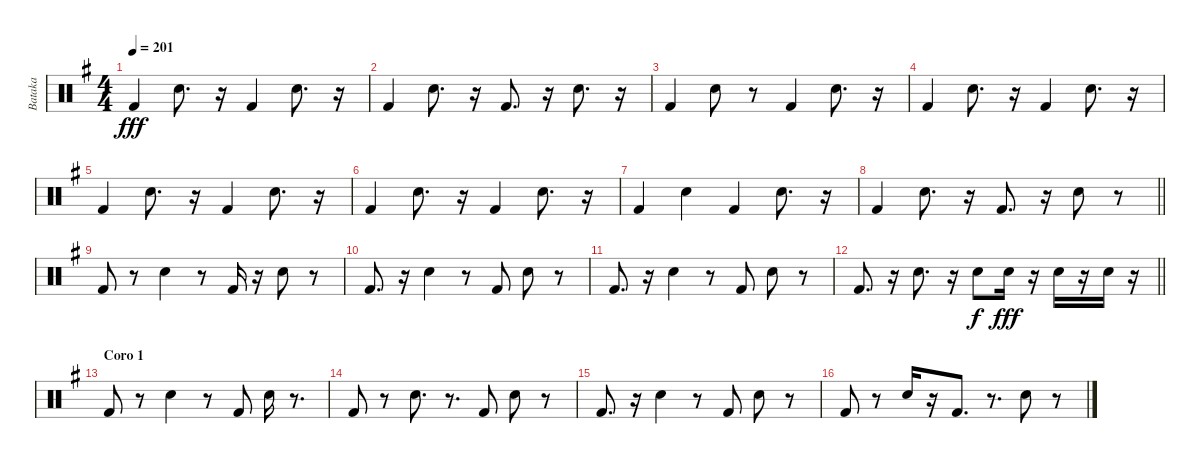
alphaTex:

\track ("Bataka" "Bataka") {instrument percussion}
\staff {score}
\articulation defaults
\ts (4 4)
\tempo 201
\clef neutral
\ks g "Kick (hit) 2".4{dy fff} "Electric Snare (hit)".8{d}
r.16 "Kick (hit) 2".4 "Electric Snare (hit)".8{d} r.16 |
"Kick (hit) 2".4 "Electric Snare (hit)".8{d} r.16 "Kick (hit) 2".8{d} r.16 "Electric Snare (hit)".8{d} r.16 |
"Kick (hit) 2".4 "Electric Snare (hit)".8 r.8 "Kick (hit) 2".4 "Electric Snare (hit)".8{d} r.16 |
"Kick (hit) 2".4 "Electric Snare (hit)".8{d} r.16 "Kick (hit) 2".4 "Electric Snare (hit)".8{d} r.16 |
"Kick (hit) 2".4 "Electric Snare (hit)".8{d} r.16 "Kick (hit) 2".4 "Electric Snare (hit)".8{d} r.16 |
"Kick (hit) 2".4 "Electric Snare (hit)".8{d} r.16 "Kick (hit) 2".4 "Electric Snare (hit)".8{d} r.16 |
"Kick (hit) 2".4 "Electric Snare (hit)".4 "Kick (hit) 2".4 "Electric Snare (hit)".8{d} r.16 |
\barLineRight lightlight "Kick (hit) 2".4 "Electric Snare (hit)".8{d}
r.16 "Kick (hit) 2".8{d} r.16 "Electric Snare (hit)".8 r.8 |
"Kick (hit) 2".8 r.8 "Electric Snare (hit)".4 r.8 "Kick (hit) 2".16 r.16 "Electric Snare (hit)".8 r.8 |
"Kick (hit) 2".8{d} r.16 "Electric Snare (hit)".4 r.8 "Kick (hit) 2".8 "Electric Snare (hit)".8 r.8 |
"Kick (hit) 2".8{d} r.16 "Electric Snare (hit)".4 r.8 "Kick (hit) 2".8 "Electric Snare (hit)".8 r.8 |
\barLineRight lightlight "Kick (hit) 2".8{d}
r.16 "Electric Snare (hit)".8{d} r.16 "Electric Snare (hit)".8{dy f} "Electric Snare (hit)".16{dy fff} r.16 "Electric Snare (hit)".16 r.16 "Electric Snare (hit)".16 r.16 |
\section ("" "Coro 1")
"Kick (hit) 2".8 r.8 "Electric Snare (hit)".4 r.8 "Kick (hit) 2".8 "Electric Snare (hit)".16 r.8{d} |
"Kick (hit) 2".8 r.8 "Electric Snare (hit)".8{d} r.8{d} "Kick (hit) 2".8 "Electric Snare (hit)".8 r.8 |
"Kick (hit) 2".8{d} r.16 "Electric Snare (hit)".4 r.8 "Kick (hit) 2".8 "Electric Snare (hit)".8 r.8 |
"Kick (hit) 2".8 r.8 "Electric Snare (hit)".16 r.16 "Kick (hit) 2".8{d} r.8{d} "Electric Snare (hit)".8 r.8
